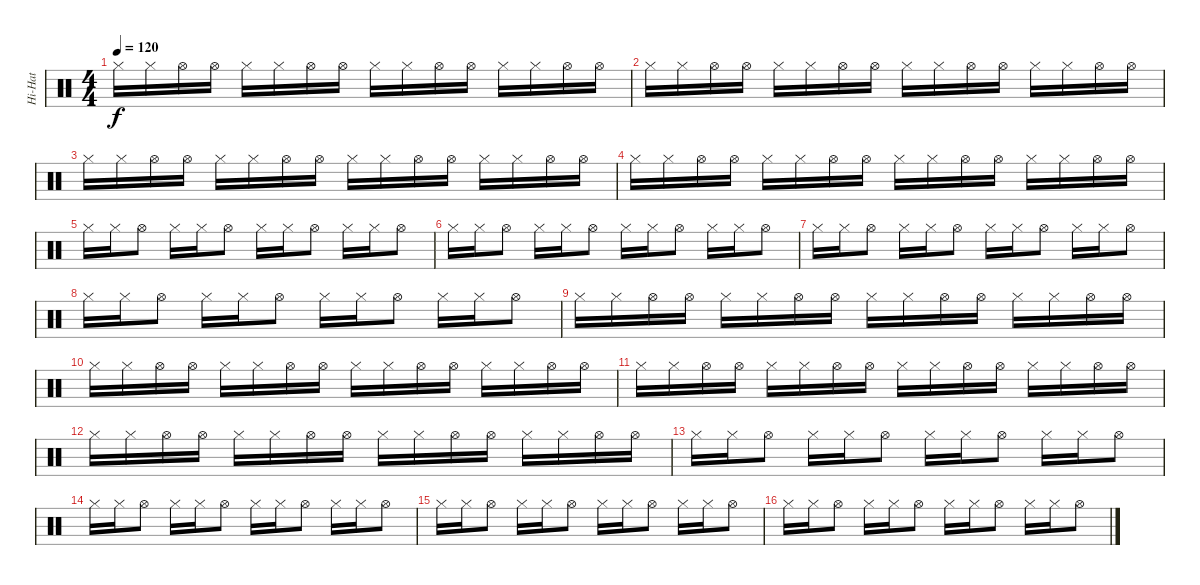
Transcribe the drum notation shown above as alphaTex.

\track ("Hi-Hat" "Hi-Hat") {instrument percussion}
\staff {score}
\articulation defaults
\ts (4 4)
\tempo 120
\clef neutral
\ks c "Hi-Hat (closed)".16{dy f} "Hi-Hat (closed)".16 "Hi-Hat (open)".16 "Hi-Hat (open)".16 "Hi-Hat (closed)".16 "Hi-Hat (closed)".16 "Hi-Hat (open)".16 "Hi-Hat (open)".16 "Hi-Hat (closed)".16 "Hi-Hat (closed)".16 "Hi-Hat (open)".16 "Hi-Hat (open)".16 "Hi-Hat (closed)".16 "Hi-Hat (closed)".16 "Hi-Hat (open)".16 "Hi-Hat (open)".16
|
"Hi-Hat (closed)".16 "Hi-Hat (closed)".16 "Hi-Hat (open)".16 "Hi-Hat (open)".16 "Hi-Hat (closed)".16 "Hi-Hat (closed)".16 "Hi-Hat (open)".16 "Hi-Hat (open)".16 "Hi-Hat (closed)".16 "Hi-Hat (closed)".16 "Hi-Hat (open)".16 "Hi-Hat (open)".16 "Hi-Hat (closed)".16 "Hi-Hat (closed)".16 "Hi-Hat (open)".16 "Hi-Hat (open)".16 |
"Hi-Hat (closed)".16 "Hi-Hat (closed)".16 "Hi-Hat (open)".16 "Hi-Hat (open)".16 "Hi-Hat (closed)".16 "Hi-Hat (closed)".16 "Hi-Hat (open)".16 "Hi-Hat (open)".16 "Hi-Hat (closed)".16 "Hi-Hat (closed)".16 "Hi-Hat (open)".16 "Hi-Hat (open)".16 "Hi-Hat (closed)".16 "Hi-Hat (closed)".16 "Hi-Hat (open)".16 "Hi-Hat (open)".16 |
"Hi-Hat (closed)".16 "Hi-Hat (closed)".16 "Hi-Hat (open)".16 "Hi-Hat (open)".16 "Hi-Hat (closed)".16 "Hi-Hat (closed)".16 "Hi-Hat (open)".16 "Hi-Hat (open)".16 "Hi-Hat (closed)".16 "Hi-Hat (closed)".16 "Hi-Hat (open)".16 "Hi-Hat (open)".16 "Hi-Hat (closed)".16 "Hi-Hat (closed)".16 "Hi-Hat (open)".16 "Hi-Hat (open)".16 |
"Hi-Hat (closed)".16 "Hi-Hat (closed)".16 "Hi-Hat (open)".8 "Hi-Hat (closed)".16 "Hi-Hat (closed)".16 "Hi-Hat (open)".8 "Hi-Hat (closed)".16 "Hi-Hat (closed)".16 "Hi-Hat (open)".8 "Hi-Hat (closed)".16 "Hi-Hat (closed)".16 "Hi-Hat (open)".8 |
"Hi-Hat (closed)".16 "Hi-Hat (closed)".16 "Hi-Hat (open)".8 "Hi-Hat (closed)".16 "Hi-Hat (closed)".16 "Hi-Hat (open)".8 "Hi-Hat (closed)".16 "Hi-Hat (closed)".16 "Hi-Hat (open)".8 "Hi-Hat (closed)".16 "Hi-Hat (closed)".16 "Hi-Hat (open)".8 |
"Hi-Hat (closed)".16 "Hi-Hat (closed)".16 "Hi-Hat (open)".8 "Hi-Hat (closed)".16 "Hi-Hat (closed)".16 "Hi-Hat (open)".8 "Hi-Hat (closed)".16 "Hi-Hat (closed)".16 "Hi-Hat (open)".8 "Hi-Hat (closed)".16 "Hi-Hat (closed)".16 "Hi-Hat (open)".8 |
"Hi-Hat (closed)".16 "Hi-Hat (closed)".16 "Hi-Hat (open)".8 "Hi-Hat (closed)".16 "Hi-Hat (closed)".16 "Hi-Hat (open)".8 "Hi-Hat (closed)".16 "Hi-Hat (closed)".16 "Hi-Hat (open)".8 "Hi-Hat (closed)".16 "Hi-Hat (closed)".16 "Hi-Hat (open)".8 |
"Hi-Hat (closed)".16 "Hi-Hat (closed)".16 "Hi-Hat (open)".16 "Hi-Hat (open)".16 "Hi-Hat (closed)".16 "Hi-Hat (closed)".16 "Hi-Hat (open)".16 "Hi-Hat (open)".16 "Hi-Hat (closed)".16 "Hi-Hat (closed)".16 "Hi-Hat (open)".16 "Hi-Hat (open)".16 "Hi-Hat (closed)".16 "Hi-Hat (closed)".16 "Hi-Hat (open)".16 "Hi-Hat (open)".16 |
"Hi-Hat (closed)".16 "Hi-Hat (closed)".16 "Hi-Hat (open)".16 "Hi-Hat (open)".16 "Hi-Hat (closed)".16 "Hi-Hat (closed)".16 "Hi-Hat (open)".16 "Hi-Hat (open)".16 "Hi-Hat (closed)".16 "Hi-Hat (closed)".16 "Hi-Hat (open)".16 "Hi-Hat (open)".16 "Hi-Hat (closed)".16 "Hi-Hat (closed)".16 "Hi-Hat (open)".16 "Hi-Hat (open)".16 |
"Hi-Hat (closed)".16 "Hi-Hat (closed)".16 "Hi-Hat (open)".16 "Hi-Hat (open)".16 "Hi-Hat (closed)".16 "Hi-Hat (closed)".16 "Hi-Hat (open)".16 "Hi-Hat (open)".16 "Hi-Hat (closed)".16 "Hi-Hat (closed)".16 "Hi-Hat (open)".16 "Hi-Hat (open)".16 "Hi-Hat (closed)".16 "Hi-Hat (closed)".16 "Hi-Hat (open)".16 "Hi-Hat (open)".16 |
"Hi-Hat (closed)".16 "Hi-Hat (closed)".16 "Hi-Hat (open)".16 "Hi-Hat (open)".16 "Hi-Hat (closed)".16 "Hi-Hat (closed)".16 "Hi-Hat (open)".16 "Hi-Hat (open)".16 "Hi-Hat (closed)".16 "Hi-Hat (closed)".16 "Hi-Hat (open)".16 "Hi-Hat (open)".16 "Hi-Hat (closed)".16 "Hi-Hat (closed)".16 "Hi-Hat (open)".16 "Hi-Hat (open)".16 |
"Hi-Hat (closed)".16 "Hi-Hat (closed)".16 "Hi-Hat (open)".8 "Hi-Hat (closed)".16 "Hi-Hat (closed)".16 "Hi-Hat (open)".8 "Hi-Hat (closed)".16 "Hi-Hat (closed)".16 "Hi-Hat (open)".8 "Hi-Hat (closed)".16 "Hi-Hat (closed)".16 "Hi-Hat (open)".8 |
"Hi-Hat (closed)".16 "Hi-Hat (closed)".16 "Hi-Hat (open)".8 "Hi-Hat (closed)".16 "Hi-Hat (closed)".16 "Hi-Hat (open)".8 "Hi-Hat (closed)".16 "Hi-Hat (closed)".16 "Hi-Hat (open)".8 "Hi-Hat (closed)".16 "Hi-Hat (closed)".16 "Hi-Hat (open)".8 |
"Hi-Hat (closed)".16 "Hi-Hat (closed)".16 "Hi-Hat (open)".8 "Hi-Hat (closed)".16 "Hi-Hat (closed)".16 "Hi-Hat (open)".8 "Hi-Hat (closed)".16 "Hi-Hat (closed)".16 "Hi-Hat (open)".8 "Hi-Hat (closed)".16 "Hi-Hat (closed)".16 "Hi-Hat (open)".8 |
"Hi-Hat (closed)".16 "Hi-Hat (closed)".16 "Hi-Hat (open)".8 "Hi-Hat (closed)".16 "Hi-Hat (closed)".16 "Hi-Hat (open)".8 "Hi-Hat (closed)".16 "Hi-Hat (closed)".16 "Hi-Hat (open)".8 "Hi-Hat (closed)".16 "Hi-Hat (closed)".16 "Hi-Hat (open)".8
